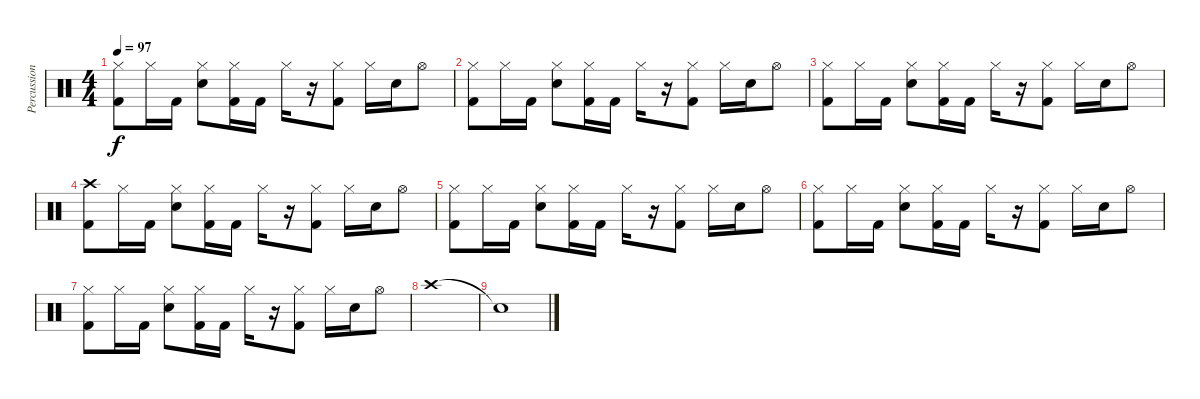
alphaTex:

\track ("Percussion" "Percussion") {instrument percussion}
\staff {score}
\articulation defaults
\ts (4 4)
\tempo 97
\clef neutral
\ks c
("Hi-Hat (closed)" "Kick (hit) 2").8{dy f} "Hi-Hat (closed)".16 "Kick (hit) 2".16 ("Hi-Hat (closed)" "Snare (hit) 2").8 ("Hi-Hat (closed)" "Kick (hit) 2").16 "Kick (hit) 2".16 "Hi-Hat (closed)".16 r.16 ("Hi-Hat (closed)" "Kick (hit) 2").8 "Hi-Hat (closed)".16 "Snare (hit) 2".16 "Hi-Hat (open)".8 |
("Hi-Hat (closed)" "Kick (hit) 2").8 "Hi-Hat (closed)".16 "Kick (hit) 2".16 ("Hi-Hat (closed)" "Snare (hit) 2").8 ("Hi-Hat (closed)" "Kick (hit) 2").16 "Kick (hit) 2".16 "Hi-Hat (closed)".16 r.16 ("Hi-Hat (closed)" "Kick (hit) 2").8 "Hi-Hat (closed)".16 "Snare (hit) 2".16 "Hi-Hat (open)".8 |
("Hi-Hat (closed)" "Kick (hit) 2").8 "Hi-Hat (closed)".16 "Kick (hit) 2".16 ("Hi-Hat (closed)" "Snare (hit) 2").8 ("Hi-Hat (closed)" "Kick (hit) 2").16 "Kick (hit) 2".16 "Hi-Hat (closed)".16 r.16 ("Hi-Hat (closed)" "Kick (hit) 2").8 "Hi-Hat (closed)".16 "Snare (hit) 2".16 "Hi-Hat (open)".8 |
("Crash high (hit)" "Kick (hit) 2").8 "Hi-Hat (closed)".16 "Kick (hit) 2".16 ("Hi-Hat (closed)" "Snare (hit) 2").8 ("Hi-Hat (closed)" "Kick (hit) 2").16 "Kick (hit) 2".16 "Hi-Hat (closed)".16 r.16 ("Hi-Hat (closed)" "Kick (hit) 2").8 "Hi-Hat (closed)".16 "Snare (hit) 2".16 "Hi-Hat (open)".8 |
("Hi-Hat (closed)" "Kick (hit) 2").8 "Hi-Hat (closed)".16 "Kick (hit) 2".16 ("Hi-Hat (closed)" "Snare (hit) 2").8 ("Hi-Hat (closed)" "Kick (hit) 2").16 "Kick (hit) 2".16 "Hi-Hat (closed)".16 r.16 ("Hi-Hat (closed)" "Kick (hit) 2").8 "Hi-Hat (closed)".16 "Snare (hit) 2".16 "Hi-Hat (open)".8 |
("Hi-Hat (closed)" "Kick (hit) 2").8 "Hi-Hat (closed)".16 "Kick (hit) 2".16 ("Hi-Hat (closed)" "Snare (hit) 2").8 ("Hi-Hat (closed)" "Kick (hit) 2").16 "Kick (hit) 2".16 "Hi-Hat (closed)".16 r.16 ("Hi-Hat (closed)" "Kick (hit) 2").8 "Hi-Hat (closed)".16 "Snare (hit) 2".16 "Hi-Hat (open)".8 |
("Hi-Hat (closed)" "Kick (hit) 2").8 "Hi-Hat (closed)".16 "Kick (hit) 2".16 ("Hi-Hat (closed)" "Snare (hit) 2").8 ("Hi-Hat (closed)" "Kick (hit) 2").16 "Kick (hit) 2".16 "Hi-Hat (closed)".16 r.16 ("Hi-Hat (closed)" "Kick (hit) 2").8 "Hi-Hat (closed)".16 "Snare (hit) 2".16 "Hi-Hat (open)".8 |
"Crash high (hit)"{tr (57 64)}.1 |
"Snare (hit)"{t}.1
